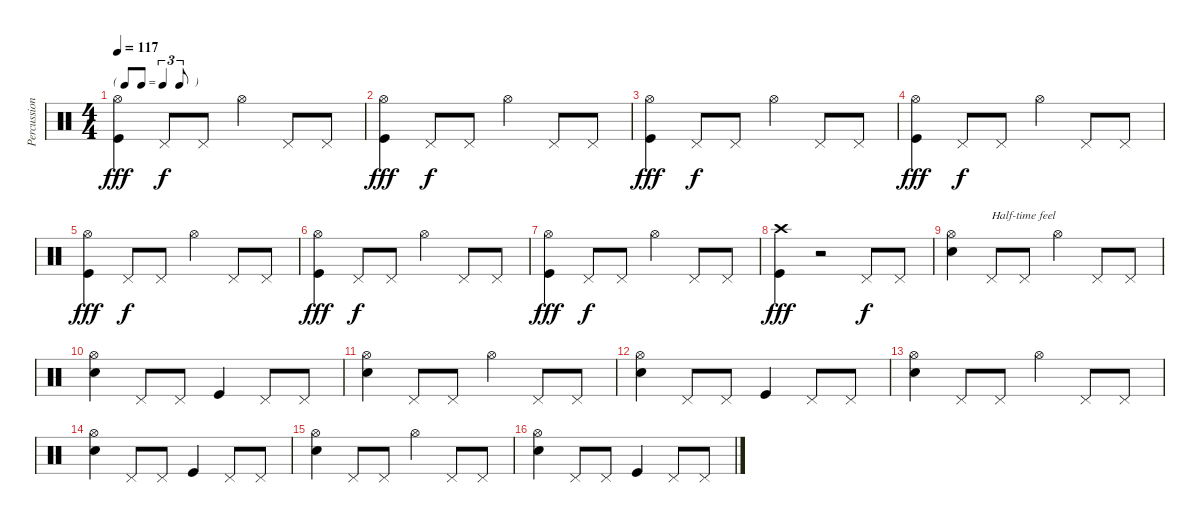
\track ("Percussions" "Percussion") {instrument percussion}
\staff {score}
\articulation defaults
\ts (4 4)
\tf triplet8th
\tempo 117
\clef neutral
\ks c
("Hi-Hat (open)" "Kick (hit)").4{dy fff} "Pedal Hi-Hat (hit)".8{dy f} "Pedal Hi-Hat (hit)".8 "Hi-Hat (open)".4 "Pedal Hi-Hat (hit)".8 "Pedal Hi-Hat (hit)".8 |
("Hi-Hat (open)" "Kick (hit)").4{dy fff} "Pedal Hi-Hat (hit)".8{dy f} "Pedal Hi-Hat (hit)".8 "Hi-Hat (open)".4 "Pedal Hi-Hat (hit)".8 "Pedal Hi-Hat (hit)".8 |
("Hi-Hat (open)" "Kick (hit)").4{dy fff} "Pedal Hi-Hat (hit)".8{dy f} "Pedal Hi-Hat (hit)".8 "Hi-Hat (open)".4 "Pedal Hi-Hat (hit)".8 "Pedal Hi-Hat (hit)".8 |
("Hi-Hat (open)" "Kick (hit)").4{dy fff} "Pedal Hi-Hat (hit)".8{dy f} "Pedal Hi-Hat (hit)".8 "Hi-Hat (open)".4 "Pedal Hi-Hat (hit)".8 "Pedal Hi-Hat (hit)".8 |
("Hi-Hat (open)" "Kick (hit)").4{dy fff} "Pedal Hi-Hat (hit)".8{dy f} "Pedal Hi-Hat (hit)".8 "Hi-Hat (open)".4 "Pedal Hi-Hat (hit)".8 "Pedal Hi-Hat (hit)".8 |
("Hi-Hat (open)" "Kick (hit)").4{dy fff} "Pedal Hi-Hat (hit)".8{dy f} "Pedal Hi-Hat (hit)".8 "Hi-Hat (open)".4 "Pedal Hi-Hat (hit)".8 "Pedal Hi-Hat (hit)".8 |
("Hi-Hat (open)" "Kick (hit)").4{dy fff} "Pedal Hi-Hat (hit)".8{dy f} "Pedal Hi-Hat (hit)".8 "Hi-Hat (open)".4 "Pedal Hi-Hat (hit)".8 "Pedal Hi-Hat (hit)".8 |
("Crash high (hit)" "Kick (hit)").4{dy fff} r.2 "Pedal Hi-Hat (hit)".8{dy f} "Pedal Hi-Hat (hit)".8 |
("Hi-Hat (open)" "Snare (hit) 2").4 "Pedal Hi-Hat (hit)".8{txt "Half-time feel"} "Pedal Hi-Hat (hit)".8 "Hi-Hat (open)".4 "Pedal Hi-Hat (hit)".8 "Pedal Hi-Hat (hit)".8 |
("Hi-Hat (open)" "Snare (hit) 2").4 "Pedal Hi-Hat (hit)".8 "Pedal Hi-Hat (hit)".8 "Kick (hit)".4 "Pedal Hi-Hat (hit)".8 "Pedal Hi-Hat (hit)".8 |
("Hi-Hat (open)" "Snare (hit) 2").4 "Pedal Hi-Hat (hit)".8 "Pedal Hi-Hat (hit)".8 "Hi-Hat (open)".4 "Pedal Hi-Hat (hit)".8 "Pedal Hi-Hat (hit)".8 |
("Hi-Hat (open)" "Snare (hit) 2").4 "Pedal Hi-Hat (hit)".8 "Pedal Hi-Hat (hit)".8 "Kick (hit)".4 "Pedal Hi-Hat (hit)".8 "Pedal Hi-Hat (hit)".8 |
("Hi-Hat (open)" "Snare (hit) 2").4 "Pedal Hi-Hat (hit)".8 "Pedal Hi-Hat (hit)".8 "Hi-Hat (open)".4 "Pedal Hi-Hat (hit)".8 "Pedal Hi-Hat (hit)".8 |
("Hi-Hat (open)" "Snare (hit) 2").4 "Pedal Hi-Hat (hit)".8 "Pedal Hi-Hat (hit)".8 "Kick (hit)".4 "Pedal Hi-Hat (hit)".8 "Pedal Hi-Hat (hit)".8 |
("Hi-Hat (open)" "Snare (hit) 2").4 "Pedal Hi-Hat (hit)".8 "Pedal Hi-Hat (hit)".8 "Hi-Hat (open)".4 "Pedal Hi-Hat (hit)".8 "Pedal Hi-Hat (hit)".8 |
("Hi-Hat (open)" "Snare (hit) 2").4 "Pedal Hi-Hat (hit)".8 "Pedal Hi-Hat (hit)".8 "Kick (hit)".4 "Pedal Hi-Hat (hit)".8 "Pedal Hi-Hat (hit)".8
